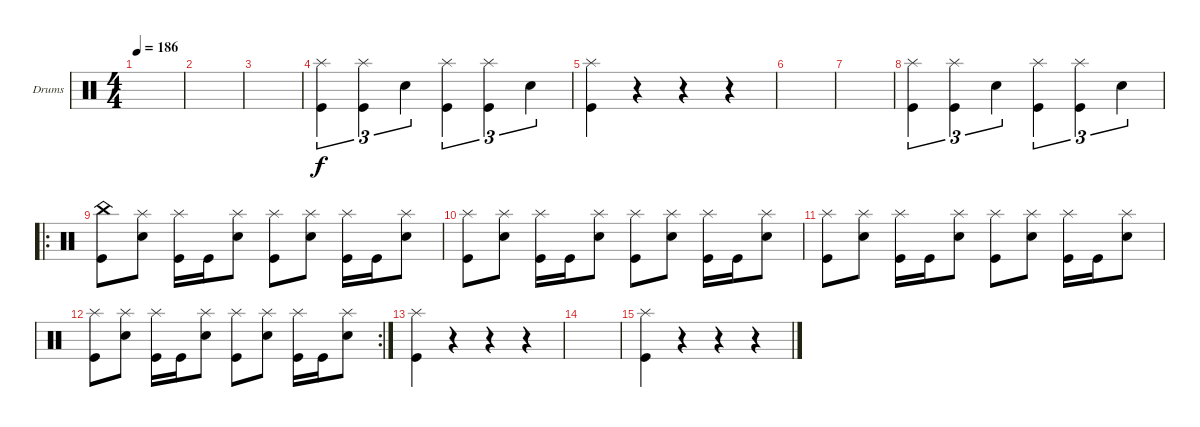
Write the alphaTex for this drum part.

\defaultSystemsLayout 4
\bracketExtendMode groupsimilarinstruments
\firstSystemTrackNameOrientation horizontal
\otherSystemsTrackNameOrientation horizontal
\track ("Drumkit" "Drums") {instrument percussion}
\staff {score}
\articulation defaults
\ts (4 4)
\tempo 186
\clef neutral
\ks c
|
|
|
("Kick (hit)" "Splash (hit)").4{tu (3 2)} ("Kick (hit)" "Splash (hit)").4{tu (3 2)} "Snare (hit) 2".4{tu (3 2)} ("Kick (hit)" "Splash (hit)").4{tu (3 2)} ("Kick (hit)" "Splash (hit)").4{tu (3 2)} "Snare (hit) 2".4{tu (3 2)} |
("Kick (hit)" "Splash (hit)").4 r.4 r.4 r.4 |
|
|
("Kick (hit)" "Splash (hit)").4{tu (3 2)} ("Kick (hit)" "Splash (hit)").4{tu (3 2)} "Snare (hit) 2".4{tu (3 2)} ("Kick (hit)" "Splash (hit)").4{tu (3 2)} ("Kick (hit)" "Splash (hit)").4{tu (3 2)} "Snare (hit) 2".4{tu (3 2)} |
\ro
("Kick (hit)" "China (hit)").8 ("Snare (hit) 2" "Splash (hit)").8 ("Kick (hit)" "Splash (hit)").16 "Kick (hit)".16 ("Snare (hit) 2" "Splash (hit)").8 ("Kick (hit)" "Splash (hit)").8 ("Snare (hit) 2" "Splash (hit)").8 ("Kick (hit)" "Splash (hit)").16 "Kick (hit)".16 ("Snare (hit) 2" "Splash (hit)").8 |
("Kick (hit)" "Splash (hit)").8 ("Snare (hit) 2" "Splash (hit)").8 ("Kick (hit)" "Splash (hit)").16 "Kick (hit)".16 ("Snare (hit) 2" "Splash (hit)").8 ("Kick (hit)" "Splash (hit)").8 ("Snare (hit) 2" "Splash (hit)").8 ("Kick (hit)" "Splash (hit)").16 "Kick (hit)".16 ("Snare (hit) 2" "Splash (hit)").8 |
("Kick (hit)" "Splash (hit)").8 ("Snare (hit) 2" "Splash (hit)").8 ("Kick (hit)" "Splash (hit)").16 "Kick (hit)".16 ("Snare (hit) 2" "Splash (hit)").8 ("Kick (hit)" "Splash (hit)").8 ("Snare (hit) 2" "Splash (hit)").8 ("Kick (hit)" "Splash (hit)").16 "Kick (hit)".16 ("Snare (hit) 2" "Splash (hit)").8 |
\rc 2
("Kick (hit)" "Splash (hit)").8 ("Snare (hit) 2" "Splash (hit)").8 ("Kick (hit)" "Splash (hit)").16 "Kick (hit)".16 ("Snare (hit) 2" "Splash (hit)").8 ("Kick (hit)" "Splash (hit)").8 ("Snare (hit) 2" "Splash (hit)").8 ("Kick (hit)" "Splash (hit)").16 "Kick (hit)".16 ("Snare (hit) 2" "Splash (hit)").8 |
("Kick (hit)" "Splash (hit)").4 r.4 r.4 r.4 |
|
("Kick (hit)" "Splash (hit)").4 r.4 r.4 r.4
